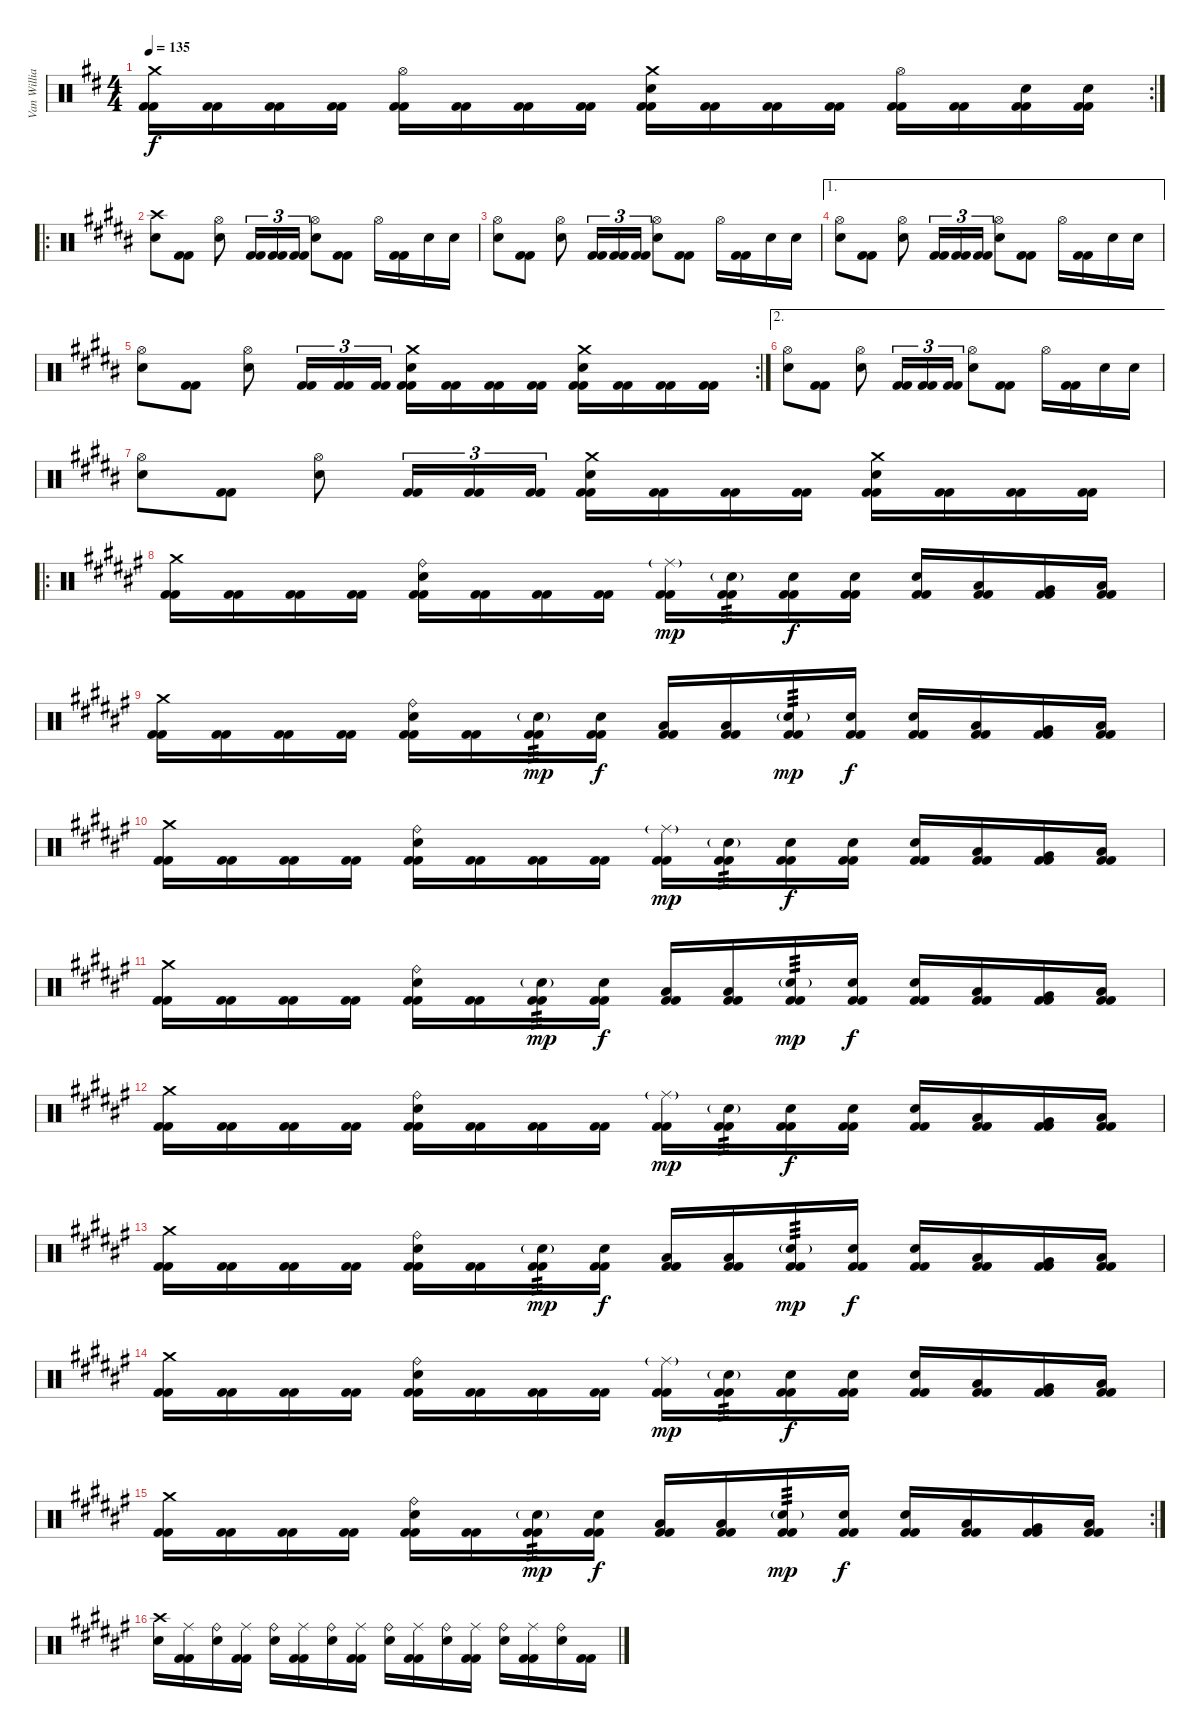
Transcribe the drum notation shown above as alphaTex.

\track ("Van Williams" "Van Willia") {instrument percussion}
\staff {score}
\articulation defaults
\rc 2
\ts (4 4)
\tempo 135
\clef neutral
\ks d
("Crash medium (hit)" "Kick (hit) 2" "Kick (hit) 2").16{dy f} ("Kick (hit) 2" "Kick (hit) 2").16 ("Kick (hit) 2" "Kick (hit) 2").16 ("Kick (hit) 2" "Kick (hit) 2").16 ("Hi-Hat (open)" "Kick (hit) 2" "Kick (hit) 2").16 ("Kick (hit) 2" "Kick (hit) 2").16 ("Kick (hit) 2" "Kick (hit) 2").16 ("Kick (hit) 2" "Kick (hit) 2").16 ("Crash medium (hit)" "Electric Snare (hit)" "Kick (hit) 2" "Kick (hit) 2").16 ("Kick (hit) 2" "Kick (hit) 2").16 ("Kick (hit) 2" "Kick (hit) 2").16 ("Kick (hit) 2" "Kick (hit) 2").16 ("Hi-Hat (open)" "Kick (hit) 2" "Kick (hit) 2").16 ("Kick (hit) 2" "Kick (hit) 2").16 ("Electric Snare (hit)" "Kick (hit) 2" "Kick (hit) 2").16 ("Electric Snare (hit)" "Kick (hit) 2" "Kick (hit) 2").16 |
\ro
\ks b
("Crash high (hit)" "Electric Snare (hit)").8 ("Kick (hit) 2" "Kick (hit) 2").8 ("Hi-Hat (open)" "Electric Snare (hit)").8 ("Kick (hit) 2" "Kick (hit) 2").16{tu (3 2)} ("Kick (hit) 2" "Kick (hit) 2").16{tu (3 2)} ("Kick (hit) 2" "Kick (hit) 2").16{tu (3 2)} ("Hi-Hat (open)" "Electric Snare (hit)").8 ("Kick (hit) 2" "Kick (hit) 2").8 "Hi-Hat (open)".16 ("Kick (hit) 2" "Kick (hit) 2").16 "Electric Snare (hit)".16 "Electric Snare (hit)".16 |
("Hi-Hat (open)" "Electric Snare (hit)").8 ("Kick (hit) 2" "Kick (hit) 2").8 ("Hi-Hat (open)" "Electric Snare (hit)").8 ("Kick (hit) 2" "Kick (hit) 2").16{tu (3 2)} ("Kick (hit) 2" "Kick (hit) 2").16{tu (3 2)} ("Kick (hit) 2" "Kick (hit) 2").16{tu (3 2)} ("Hi-Hat (open)" "Electric Snare (hit)").8 ("Kick (hit) 2" "Kick (hit) 2").8 "Hi-Hat (open)".16 ("Kick (hit) 2" "Kick (hit) 2").16 "Electric Snare (hit)".16 "Electric Snare (hit)".16 |
\ae 1
("Hi-Hat (open)" "Electric Snare (hit)").8 ("Kick (hit) 2" "Kick (hit) 2").8 ("Hi-Hat (open)" "Electric Snare (hit)").8 ("Kick (hit) 2" "Kick (hit) 2").16{tu (3 2)} ("Kick (hit) 2" "Kick (hit) 2").16{tu (3 2)} ("Kick (hit) 2" "Kick (hit) 2").16{tu (3 2)} ("Hi-Hat (open)" "Electric Snare (hit)").8 ("Kick (hit) 2" "Kick (hit) 2").8 "Hi-Hat (open)".16 ("Kick (hit) 2" "Kick (hit) 2").16 "Electric Snare (hit)".16 "Electric Snare (hit)".16 |
\rc 2
("Hi-Hat (open)" "Electric Snare (hit)").8 ("Kick (hit) 2" "Kick (hit) 2").8 ("Hi-Hat (open)" "Electric Snare (hit)").8 ("Kick (hit) 2" "Kick (hit) 2").16{tu (3 2)} ("Kick (hit) 2" "Kick (hit) 2").16{tu (3 2)} ("Kick (hit) 2" "Kick (hit) 2").16{tu (3 2)} ("Crash medium (hit)" "Electric Snare (hit)" "Kick (hit) 2" "Kick (hit) 2").16 ("Kick (hit) 2" "Kick (hit) 2").16 ("Kick (hit) 2" "Kick (hit) 2").16 ("Kick (hit) 2" "Kick (hit) 2").16 ("Crash medium (hit)" "Electric Snare (hit)" "Kick (hit) 2" "Kick (hit) 2").16 ("Kick (hit) 2" "Kick (hit) 2").16 ("Kick (hit) 2" "Kick (hit) 2").16 ("Kick (hit) 2" "Kick (hit) 2").16 |
\ae 2
("Hi-Hat (open)" "Electric Snare (hit)").8 ("Kick (hit) 2" "Kick (hit) 2").8 ("Hi-Hat (open)" "Electric Snare (hit)").8 ("Kick (hit) 2" "Kick (hit) 2").16{tu (3 2)} ("Kick (hit) 2" "Kick (hit) 2").16{tu (3 2)} ("Kick (hit) 2" "Kick (hit) 2").16{tu (3 2)} ("Hi-Hat (open)" "Electric Snare (hit)").8 ("Kick (hit) 2" "Kick (hit) 2").8 "Hi-Hat (open)".16 ("Kick (hit) 2" "Kick (hit) 2").16 "Electric Snare (hit)".16 "Electric Snare (hit)".16 |
("Hi-Hat (open)" "Electric Snare (hit)").8 ("Kick (hit) 2" "Kick (hit) 2").8 ("Hi-Hat (open)" "Electric Snare (hit)").8 ("Kick (hit) 2" "Kick (hit) 2").16{tu (3 2)} ("Kick (hit) 2" "Kick (hit) 2").16{tu (3 2)} ("Kick (hit) 2" "Kick (hit) 2").16{tu (3 2)} ("Crash medium (hit)" "Electric Snare (hit)" "Kick (hit) 2" "Kick (hit) 2").16 ("Kick (hit) 2" "Kick (hit) 2").16 ("Kick (hit) 2" "Kick (hit) 2").16 ("Kick (hit) 2" "Kick (hit) 2").16 ("Crash medium (hit)" "Electric Snare (hit)" "Kick (hit) 2" "Kick (hit) 2").16 ("Kick (hit) 2" "Kick (hit) 2").16 ("Kick (hit) 2" "Kick (hit) 2").16 ("Kick (hit) 2" "Kick (hit) 2").16 |
\ro
\ks f#
("Crash medium (hit)" "Kick (hit) 2" "Kick (hit) 2").16 ("Kick (hit) 2" "Kick (hit) 2").16 ("Kick (hit) 2" "Kick (hit) 2").16 ("Kick (hit) 2" "Kick (hit) 2").16 ("Ride (bell)" "Electric Snare (hit)" "Kick (hit) 2" "Kick (hit) 2").16 ("Kick (hit) 2" "Kick (hit) 2").16 ("Kick (hit) 2" "Kick (hit) 2").16 ("Kick (hit) 2" "Kick (hit) 2").16 ("Ride (middle)"{g} "Kick (hit) 2" "Kick (hit) 2").16{dy mp} ("Electric Snare (hit)"{g} "Kick (hit) 2" "Kick (hit) 2").16{tp 3} ("Electric Snare (hit)" "Kick (hit) 2" "Kick (hit) 2").16{dy f} ("Electric Snare (hit)" "Kick (hit) 2" "Kick (hit) 2").16 ("Electric Snare (hit)" "Kick (hit) 2" "Kick (hit) 2").16 ("Low Tom (hit)" "Kick (hit) 2" "Kick (hit) 2").16 ("Very Low Tom (hit)" "Kick (hit) 2" "Kick (hit) 2").16 ("Low Floor Tom (hit)" "Kick (hit) 2" "Kick (hit) 2").16 |
("Crash medium (hit)" "Kick (hit) 2" "Kick (hit) 2").16 ("Kick (hit) 2" "Kick (hit) 2").16 ("Kick (hit) 2" "Kick (hit) 2").16 ("Kick (hit) 2" "Kick (hit) 2").16 ("Ride (bell)" "Electric Snare (hit)" "Kick (hit) 2" "Kick (hit) 2").16 ("Kick (hit) 2" "Kick (hit) 2").16 ("Electric Snare (hit)"{g} "Kick (hit) 2" "Kick (hit) 2").16{tp 3 dy mp} ("Electric Snare (hit)" "Kick (hit) 2" "Kick (hit) 2").16{dy f} ("Low Tom (hit)" "Kick (hit) 2" "Kick (hit) 2").16 ("Low Tom (hit)" "Kick (hit) 2" "Kick (hit) 2").16 ("Electric Snare (hit)"{g} "Kick (hit) 2" "Kick (hit) 2").16{tp 3 dy mp} ("Electric Snare (hit)" "Kick (hit) 2" "Kick (hit) 2").16{dy f} ("Electric Snare (hit)" "Kick (hit) 2" "Kick (hit) 2").16 ("Low Tom (hit)" "Kick (hit) 2" "Kick (hit) 2").16 ("Very Low Tom (hit)" "Kick (hit) 2" "Kick (hit) 2").16 ("Low Floor Tom (hit)" "Kick (hit) 2" "Kick (hit) 2").16 |
("Crash medium (hit)" "Kick (hit) 2" "Kick (hit) 2").16 ("Kick (hit) 2" "Kick (hit) 2").16 ("Kick (hit) 2" "Kick (hit) 2").16 ("Kick (hit) 2" "Kick (hit) 2").16 ("Ride (bell)" "Electric Snare (hit)" "Kick (hit) 2" "Kick (hit) 2").16 ("Kick (hit) 2" "Kick (hit) 2").16 ("Kick (hit) 2" "Kick (hit) 2").16 ("Kick (hit) 2" "Kick (hit) 2").16 ("Ride (middle)"{g} "Kick (hit) 2" "Kick (hit) 2").16{dy mp} ("Electric Snare (hit)"{g} "Kick (hit) 2" "Kick (hit) 2").16{tp 3} ("Electric Snare (hit)" "Kick (hit) 2" "Kick (hit) 2").16{dy f} ("Electric Snare (hit)" "Kick (hit) 2" "Kick (hit) 2").16 ("Electric Snare (hit)" "Kick (hit) 2" "Kick (hit) 2").16 ("Low Tom (hit)" "Kick (hit) 2" "Kick (hit) 2").16 ("Very Low Tom (hit)" "Kick (hit) 2" "Kick (hit) 2").16 ("Low Floor Tom (hit)" "Kick (hit) 2" "Kick (hit) 2").16 |
("Crash medium (hit)" "Kick (hit) 2" "Kick (hit) 2").16 ("Kick (hit) 2" "Kick (hit) 2").16 ("Kick (hit) 2" "Kick (hit) 2").16 ("Kick (hit) 2" "Kick (hit) 2").16 ("Ride (bell)" "Electric Snare (hit)" "Kick (hit) 2" "Kick (hit) 2").16 ("Kick (hit) 2" "Kick (hit) 2").16 ("Electric Snare (hit)"{g} "Kick (hit) 2" "Kick (hit) 2").16{tp 3 dy mp} ("Electric Snare (hit)" "Kick (hit) 2" "Kick (hit) 2").16{dy f} ("Low Tom (hit)" "Kick (hit) 2" "Kick (hit) 2").16 ("Low Tom (hit)" "Kick (hit) 2" "Kick (hit) 2").16 ("Electric Snare (hit)"{g} "Kick (hit) 2" "Kick (hit) 2").16{tp 3 dy mp} ("Electric Snare (hit)" "Kick (hit) 2" "Kick (hit) 2").16{dy f} ("Electric Snare (hit)" "Kick (hit) 2" "Kick (hit) 2").16 ("Low Tom (hit)" "Kick (hit) 2" "Kick (hit) 2").16 ("Very Low Tom (hit)" "Kick (hit) 2" "Kick (hit) 2").16 ("Low Floor Tom (hit)" "Kick (hit) 2" "Kick (hit) 2").16 |
("Crash medium (hit)" "Kick (hit) 2" "Kick (hit) 2").16 ("Kick (hit) 2" "Kick (hit) 2").16 ("Kick (hit) 2" "Kick (hit) 2").16 ("Kick (hit) 2" "Kick (hit) 2").16 ("Ride (bell)" "Electric Snare (hit)" "Kick (hit) 2" "Kick (hit) 2").16 ("Kick (hit) 2" "Kick (hit) 2").16 ("Kick (hit) 2" "Kick (hit) 2").16 ("Kick (hit) 2" "Kick (hit) 2").16 ("Ride (middle)"{g} "Kick (hit) 2" "Kick (hit) 2").16{dy mp} ("Electric Snare (hit)"{g} "Kick (hit) 2" "Kick (hit) 2").16{tp 3} ("Electric Snare (hit)" "Kick (hit) 2" "Kick (hit) 2").16{dy f} ("Electric Snare (hit)" "Kick (hit) 2" "Kick (hit) 2").16 ("Electric Snare (hit)" "Kick (hit) 2" "Kick (hit) 2").16 ("Low Tom (hit)" "Kick (hit) 2" "Kick (hit) 2").16 ("Very Low Tom (hit)" "Kick (hit) 2" "Kick (hit) 2").16 ("Low Floor Tom (hit)" "Kick (hit) 2" "Kick (hit) 2").16 |
("Crash medium (hit)" "Kick (hit) 2" "Kick (hit) 2").16 ("Kick (hit) 2" "Kick (hit) 2").16 ("Kick (hit) 2" "Kick (hit) 2").16 ("Kick (hit) 2" "Kick (hit) 2").16 ("Ride (bell)" "Electric Snare (hit)" "Kick (hit) 2" "Kick (hit) 2").16 ("Kick (hit) 2" "Kick (hit) 2").16 ("Electric Snare (hit)"{g} "Kick (hit) 2" "Kick (hit) 2").16{tp 3 dy mp} ("Electric Snare (hit)" "Kick (hit) 2" "Kick (hit) 2").16{dy f} ("Low Tom (hit)" "Kick (hit) 2" "Kick (hit) 2").16 ("Low Tom (hit)" "Kick (hit) 2" "Kick (hit) 2").16 ("Electric Snare (hit)"{g} "Kick (hit) 2" "Kick (hit) 2").16{tp 3 dy mp} ("Electric Snare (hit)" "Kick (hit) 2" "Kick (hit) 2").16{dy f} ("Electric Snare (hit)" "Kick (hit) 2" "Kick (hit) 2").16 ("Low Tom (hit)" "Kick (hit) 2" "Kick (hit) 2").16 ("Very Low Tom (hit)" "Kick (hit) 2" "Kick (hit) 2").16 ("Low Floor Tom (hit)" "Kick (hit) 2" "Kick (hit) 2").16 |
("Crash medium (hit)" "Kick (hit) 2" "Kick (hit) 2").16 ("Kick (hit) 2" "Kick (hit) 2").16 ("Kick (hit) 2" "Kick (hit) 2").16 ("Kick (hit) 2" "Kick (hit) 2").16 ("Ride (bell)" "Electric Snare (hit)" "Kick (hit) 2" "Kick (hit) 2").16 ("Kick (hit) 2" "Kick (hit) 2").16 ("Kick (hit) 2" "Kick (hit) 2").16 ("Kick (hit) 2" "Kick (hit) 2").16 ("Ride (middle)"{g} "Kick (hit) 2" "Kick (hit) 2").16{dy mp} ("Electric Snare (hit)"{g} "Kick (hit) 2" "Kick (hit) 2").16{tp 3} ("Electric Snare (hit)" "Kick (hit) 2" "Kick (hit) 2").16{dy f} ("Electric Snare (hit)" "Kick (hit) 2" "Kick (hit) 2").16 ("Electric Snare (hit)" "Kick (hit) 2" "Kick (hit) 2").16 ("Low Tom (hit)" "Kick (hit) 2" "Kick (hit) 2").16 ("Very Low Tom (hit)" "Kick (hit) 2" "Kick (hit) 2").16 ("Low Floor Tom (hit)" "Kick (hit) 2" "Kick (hit) 2").16 |
\rc 2
("Crash medium (hit)" "Kick (hit) 2" "Kick (hit) 2").16 ("Kick (hit) 2" "Kick (hit) 2").16 ("Kick (hit) 2" "Kick (hit) 2").16 ("Kick (hit) 2" "Kick (hit) 2").16 ("Ride (bell)" "Electric Snare (hit)" "Kick (hit) 2" "Kick (hit) 2").16 ("Kick (hit) 2" "Kick (hit) 2").16 ("Electric Snare (hit)"{g} "Kick (hit) 2" "Kick (hit) 2").16{tp 3 dy mp} ("Electric Snare (hit)" "Kick (hit) 2" "Kick (hit) 2").16{dy f} ("Low Tom (hit)" "Kick (hit) 2" "Kick (hit) 2").16 ("Low Tom (hit)" "Kick (hit) 2" "Kick (hit) 2").16 ("Electric Snare (hit)"{g} "Kick (hit) 2" "Kick (hit) 2").16{tp 3 dy mp} ("Electric Snare (hit)" "Kick (hit) 2" "Kick (hit) 2").16{dy f} ("Electric Snare (hit)" "Kick (hit) 2" "Kick (hit) 2").16 ("Low Tom (hit)" "Kick (hit) 2" "Kick (hit) 2").16 ("Very Low Tom (hit)" "Kick (hit) 2" "Kick (hit) 2").16 ("Low Floor Tom (hit)" "Kick (hit) 2" "Kick (hit) 2").16 |
("Crash high (hit)" "Electric Snare (hit)").16 ("Ride (middle)" "Kick (hit) 2" "Kick (hit) 2").16 ("Ride (bell)" "Electric Snare (hit)").16 ("Ride (middle)" "Kick (hit) 2" "Kick (hit) 2").16 ("Ride (bell)" "Electric Snare (hit)").16 ("Ride (middle)" "Kick (hit) 2" "Kick (hit) 2").16 ("Ride (bell)" "Electric Snare (hit)").16 ("Ride (middle)" "Kick (hit) 2" "Kick (hit) 2").16 ("Ride (bell)" "Electric Snare (hit)").16 ("Ride (middle)" "Kick (hit) 2" "Kick (hit) 2").16 ("Ride (bell)" "Electric Snare (hit)").16 ("Ride (middle)" "Kick (hit) 2" "Kick (hit) 2").16 ("Ride (bell)" "Electric Snare (hit)").16 ("Ride (middle)" "Kick (hit) 2" "Kick (hit) 2").16 ("Ride (bell)" "Electric Snare (hit)").16 ("Kick (hit) 2" "Kick (hit) 2").16
